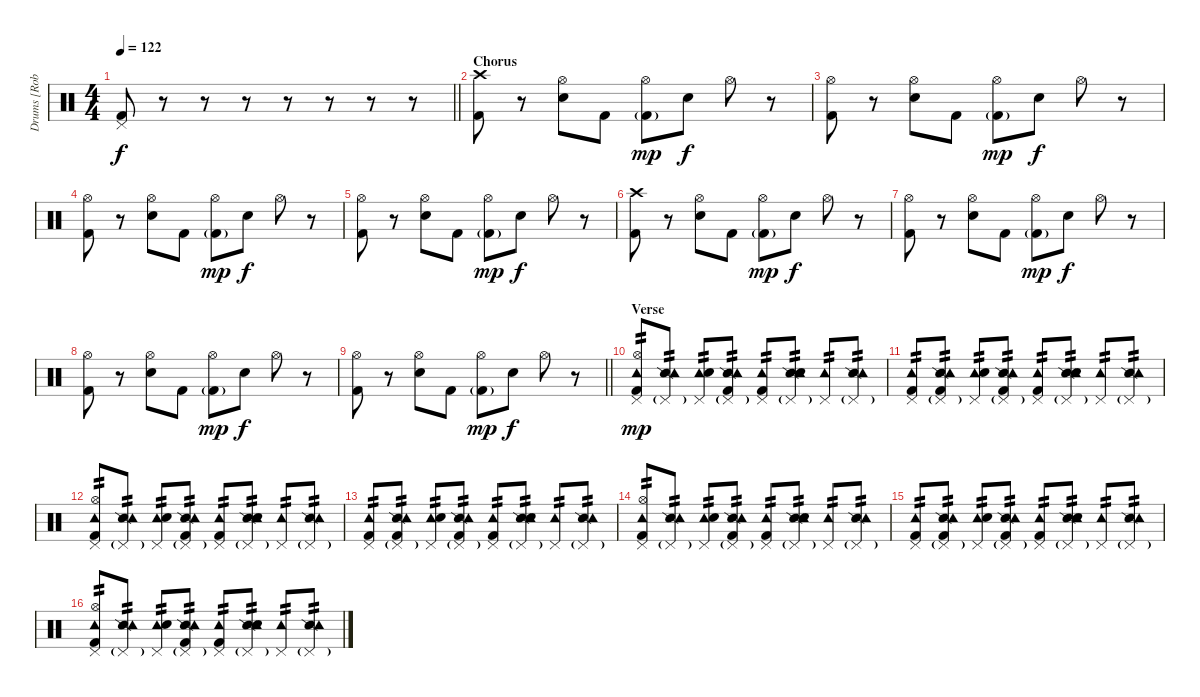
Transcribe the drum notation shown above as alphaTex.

\track ("Drums [Rob Bourdon]" "Drums [Rob") {solo instrument percussion}
\staff {score}
\articulation defaults
\ts (4 4)
\tempo 122
\clef neutral
\barLineRight lightlight
\ks c
("Pedal Hi-Hat (hit)" "Kick (hit) 2").8{dy f} r.8 r.8 r.8 r.8 r.8 r.8 r.8 |
\section ("" "Chorus")
("Crash high (hit)" "Kick (hit) 2").8 r.8 ("Hi-Hat (open)" "Electric Snare (hit)").8 "Kick (hit) 2".8 ("Hi-Hat (open)" "Kick (hit) 2"{g}).8{dy mp} "Electric Snare (hit)".8{dy f} "Hi-Hat (open)".8 r.8 |
("Hi-Hat (open)" "Kick (hit) 2").8 r.8 ("Hi-Hat (open)" "Electric Snare (hit)").8 "Kick (hit) 2".8 ("Hi-Hat (open)" "Kick (hit) 2"{g}).8{dy mp} "Electric Snare (hit)".8{dy f} "Hi-Hat (open)".8 r.8 |
("Hi-Hat (open)" "Kick (hit) 2").8 r.8 ("Hi-Hat (open)" "Electric Snare (hit)").8 "Kick (hit) 2".8 ("Hi-Hat (open)" "Kick (hit) 2"{g}).8{dy mp} "Electric Snare (hit)".8{dy f} "Hi-Hat (open)".8 r.8 |
("Hi-Hat (open)" "Kick (hit) 2").8 r.8 ("Hi-Hat (open)" "Electric Snare (hit)").8 "Kick (hit) 2".8 ("Hi-Hat (open)" "Kick (hit) 2"{g}).8{dy mp} "Electric Snare (hit)".8{dy f} "Hi-Hat (open)".8 r.8 |
("Crash high (hit)" "Kick (hit) 2").8 r.8 ("Hi-Hat (open)" "Electric Snare (hit)").8 "Kick (hit) 2".8 ("Hi-Hat (open)" "Kick (hit) 2"{g}).8{dy mp} "Electric Snare (hit)".8{dy f} "Hi-Hat (open)".8 r.8 |
("Hi-Hat (open)" "Kick (hit) 2").8 r.8 ("Hi-Hat (open)" "Electric Snare (hit)").8 "Kick (hit) 2".8 ("Hi-Hat (open)" "Kick (hit) 2"{g}).8{dy mp} "Electric Snare (hit)".8{dy f} "Hi-Hat (open)".8 r.8 |
("Hi-Hat (open)" "Kick (hit) 2").8 r.8 ("Hi-Hat (open)" "Electric Snare (hit)").8 "Kick (hit) 2".8 ("Hi-Hat (open)" "Kick (hit) 2"{g}).8{dy mp} "Electric Snare (hit)".8{dy f} "Hi-Hat (open)".8 r.8 |
\barLineRight lightlight
("Hi-Hat (open)" "Kick (hit) 2").8 r.8 ("Hi-Hat (open)" "Electric Snare (hit)").8 "Kick (hit) 2".8 ("Hi-Hat (open)" "Kick (hit) 2"{g}).8{dy mp} "Electric Snare (hit)".8{dy f} "Hi-Hat (open)".8 r.8 |
\section ("" "Verse")
("Pedal Hi-Hat (hit)" "Hi-Hat (open)" "Tambourine (hit)" "Kick (hit) 2").8{tp 2 dy mp} ("Snare (side stick) 2" "Pedal Hi-Hat (hit)"{g} "Tambourine (hit)").8{tp 2} ("Pedal Hi-Hat (hit)" "Tambourine (hit)" "Electric Snare (hit)").8{tp 2} ("Snare (side stick) 2" "Pedal Hi-Hat (hit)"{g} "Tambourine (hit)" "Kick (hit) 2").8{tp 2} ("Pedal Hi-Hat (hit)" "Tambourine (hit)" "Kick (hit) 2").8{tp 2} ("Snare (side stick) 2" "Pedal Hi-Hat (hit)"{g} "Tambourine (hit)" "Electric Snare (hit)").8{tp 2} ("Pedal Hi-Hat (hit)" "Tambourine (hit)").8{tp 2} ("Snare (side stick) 2" "Pedal Hi-Hat (hit)"{g} "Tambourine (hit)").8{tp 2} |
("Pedal Hi-Hat (hit)" "Tambourine (hit)" "Kick (hit) 2").8{tp 2} ("Snare (side stick) 2" "Pedal Hi-Hat (hit)"{g} "Tambourine (hit)" "Kick (hit) 2").8{tp 2} ("Pedal Hi-Hat (hit)" "Tambourine (hit)" "Electric Snare (hit)").8{tp 2} ("Snare (side stick) 2" "Pedal Hi-Hat (hit)"{g} "Tambourine (hit)" "Kick (hit) 2").8{tp 2} ("Pedal Hi-Hat (hit)" "Tambourine (hit)" "Kick (hit) 2").8{tp 2} ("Snare (side stick) 2" "Pedal Hi-Hat (hit)"{g} "Tambourine (hit)" "Electric Snare (hit)").8{tp 2} ("Pedal Hi-Hat (hit)" "Tambourine (hit)").8{tp 2} ("Snare (side stick) 2" "Pedal Hi-Hat (hit)"{g} "Tambourine (hit)").8{tp 2} |
("Pedal Hi-Hat (hit)" "Hi-Hat (open)" "Tambourine (hit)" "Kick (hit) 2").8{tp 2} ("Snare (side stick) 2" "Pedal Hi-Hat (hit)"{g} "Tambourine (hit)").8{tp 2} ("Pedal Hi-Hat (hit)" "Tambourine (hit)" "Electric Snare (hit)").8{tp 2} ("Snare (side stick) 2" "Pedal Hi-Hat (hit)"{g} "Tambourine (hit)" "Kick (hit) 2").8{tp 2} ("Pedal Hi-Hat (hit)" "Tambourine (hit)" "Kick (hit) 2").8{tp 2} ("Snare (side stick) 2" "Pedal Hi-Hat (hit)"{g} "Tambourine (hit)" "Electric Snare (hit)").8{tp 2} ("Pedal Hi-Hat (hit)" "Tambourine (hit)").8{tp 2} ("Snare (side stick) 2" "Pedal Hi-Hat (hit)"{g} "Tambourine (hit)").8{tp 2} |
("Pedal Hi-Hat (hit)" "Tambourine (hit)" "Kick (hit) 2").8{tp 2} ("Snare (side stick) 2" "Pedal Hi-Hat (hit)"{g} "Tambourine (hit)" "Kick (hit) 2").8{tp 2} ("Pedal Hi-Hat (hit)" "Tambourine (hit)" "Electric Snare (hit)").8{tp 2} ("Snare (side stick) 2" "Pedal Hi-Hat (hit)"{g} "Tambourine (hit)" "Kick (hit) 2").8{tp 2} ("Pedal Hi-Hat (hit)" "Tambourine (hit)" "Kick (hit) 2").8{tp 2} ("Snare (side stick) 2" "Pedal Hi-Hat (hit)"{g} "Tambourine (hit)" "Electric Snare (hit)").8{tp 2} ("Pedal Hi-Hat (hit)" "Tambourine (hit)").8{tp 2} ("Snare (side stick) 2" "Pedal Hi-Hat (hit)"{g} "Tambourine (hit)").8{tp 2} |
("Pedal Hi-Hat (hit)" "Hi-Hat (open)" "Tambourine (hit)" "Kick (hit) 2").8{tp 2} ("Snare (side stick) 2" "Pedal Hi-Hat (hit)"{g} "Tambourine (hit)").8{tp 2} ("Pedal Hi-Hat (hit)" "Tambourine (hit)" "Electric Snare (hit)").8{tp 2} ("Snare (side stick) 2" "Pedal Hi-Hat (hit)"{g} "Tambourine (hit)" "Kick (hit) 2").8{tp 2} ("Pedal Hi-Hat (hit)" "Tambourine (hit)" "Kick (hit) 2").8{tp 2} ("Snare (side stick) 2" "Pedal Hi-Hat (hit)"{g} "Tambourine (hit)" "Electric Snare (hit)").8{tp 2} ("Pedal Hi-Hat (hit)" "Tambourine (hit)").8{tp 2} ("Snare (side stick) 2" "Pedal Hi-Hat (hit)"{g} "Tambourine (hit)").8{tp 2} |
("Pedal Hi-Hat (hit)" "Tambourine (hit)" "Kick (hit) 2").8{tp 2} ("Snare (side stick) 2" "Pedal Hi-Hat (hit)"{g} "Tambourine (hit)" "Kick (hit) 2").8{tp 2} ("Pedal Hi-Hat (hit)" "Tambourine (hit)" "Electric Snare (hit)").8{tp 2} ("Snare (side stick) 2" "Pedal Hi-Hat (hit)"{g} "Tambourine (hit)" "Kick (hit) 2").8{tp 2} ("Pedal Hi-Hat (hit)" "Tambourine (hit)" "Kick (hit) 2").8{tp 2} ("Snare (side stick) 2" "Pedal Hi-Hat (hit)"{g} "Tambourine (hit)" "Electric Snare (hit)").8{tp 2} ("Pedal Hi-Hat (hit)" "Tambourine (hit)").8{tp 2} ("Snare (side stick) 2" "Pedal Hi-Hat (hit)"{g} "Tambourine (hit)").8{tp 2} |
("Pedal Hi-Hat (hit)" "Hi-Hat (open)" "Tambourine (hit)" "Kick (hit) 2").8{tp 2} ("Snare (side stick) 2" "Pedal Hi-Hat (hit)"{g} "Tambourine (hit)").8{tp 2} ("Pedal Hi-Hat (hit)" "Tambourine (hit)" "Electric Snare (hit)").8{tp 2} ("Snare (side stick) 2" "Pedal Hi-Hat (hit)"{g} "Tambourine (hit)" "Kick (hit) 2").8{tp 2} ("Pedal Hi-Hat (hit)" "Tambourine (hit)" "Kick (hit) 2").8{tp 2} ("Snare (side stick) 2" "Pedal Hi-Hat (hit)"{g} "Tambourine (hit)" "Electric Snare (hit)").8{tp 2} ("Pedal Hi-Hat (hit)" "Tambourine (hit)").8{tp 2} ("Snare (side stick) 2" "Pedal Hi-Hat (hit)"{g} "Tambourine (hit)").8{tp 2}
